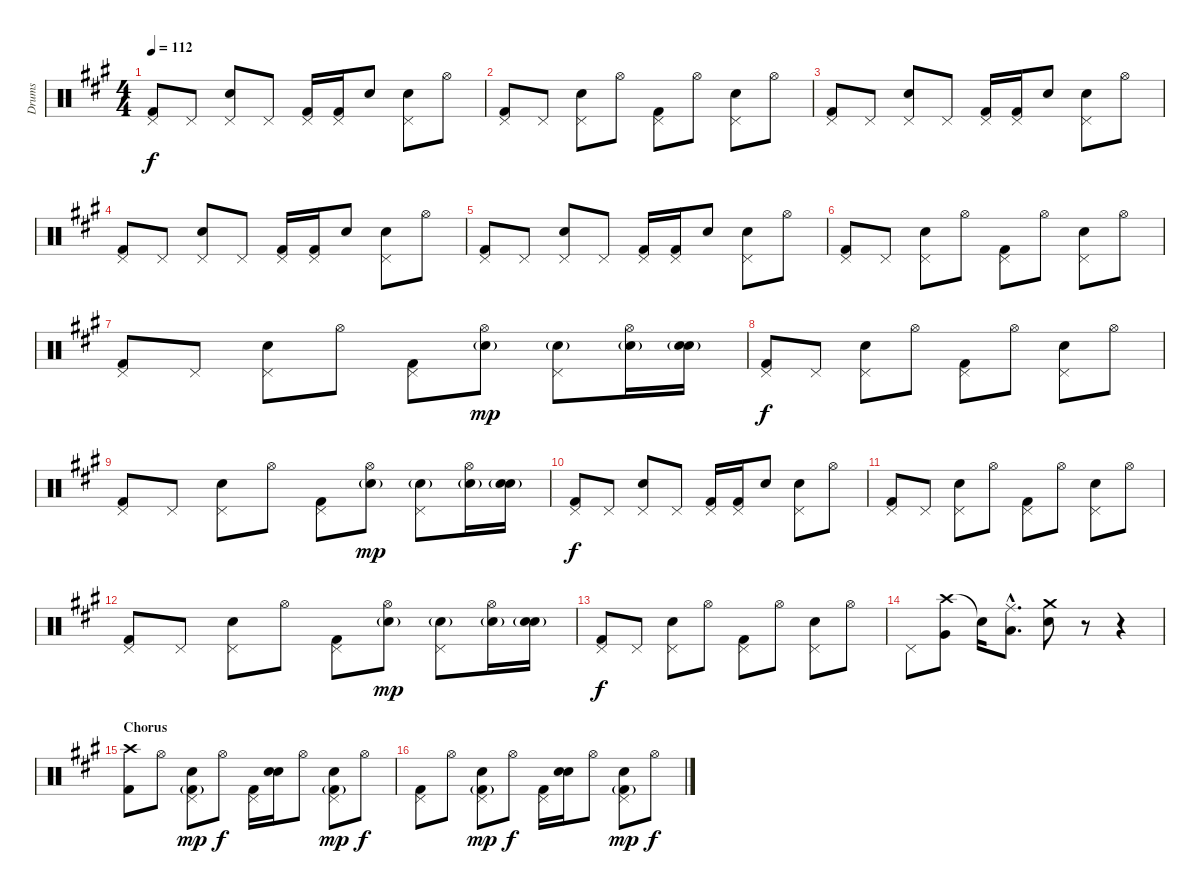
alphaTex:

\track ("Drums" "Drums") {instrument percussion}
\staff {score}
\articulation defaults
\ts (4 4)
\tempo 112
\clef neutral
\ks a
("Pedal Hi-Hat (hit)" "Kick (hit) 2").8{dy f} "Pedal Hi-Hat (hit)".8 ("Pedal Hi-Hat (hit)" "Electric Snare (hit)").8 "Pedal Hi-Hat (hit)".8 ("Pedal Hi-Hat (hit)" "Kick (hit) 2").16 ("Pedal Hi-Hat (hit)" "Kick (hit) 2").16 "Snare (hit)"{x}.8 ("Pedal Hi-Hat (hit)" "Electric Snare (hit)").8 "Hi-Hat (open)".8 |
("Pedal Hi-Hat (hit)" "Kick (hit) 2").8 "Pedal Hi-Hat (hit)".8 ("Pedal Hi-Hat (hit)" "Electric Snare (hit)").8 "Hi-Hat (open)".8 ("Pedal Hi-Hat (hit)" "Kick (hit) 2").8 "Hi-Hat (open)".8 ("Pedal Hi-Hat (hit)" "Electric Snare (hit)").8 "Hi-Hat (open)".8 |
("Pedal Hi-Hat (hit)" "Kick (hit) 2").8 "Pedal Hi-Hat (hit)".8 ("Pedal Hi-Hat (hit)" "Electric Snare (hit)").8 "Pedal Hi-Hat (hit)".8 ("Pedal Hi-Hat (hit)" "Kick (hit) 2").16 ("Pedal Hi-Hat (hit)" "Kick (hit) 2").16 "Snare (hit)"{x}.8 ("Pedal Hi-Hat (hit)" "Electric Snare (hit)").8 "Hi-Hat (open)".8 |
("Pedal Hi-Hat (hit)" "Kick (hit) 2").8 "Pedal Hi-Hat (hit)".8 ("Pedal Hi-Hat (hit)" "Electric Snare (hit)").8 "Pedal Hi-Hat (hit)".8 ("Pedal Hi-Hat (hit)" "Kick (hit) 2").16 ("Pedal Hi-Hat (hit)" "Kick (hit) 2").16 "Snare (hit)"{x}.8 ("Pedal Hi-Hat (hit)" "Electric Snare (hit)").8 "Hi-Hat (open)".8 |
("Pedal Hi-Hat (hit)" "Kick (hit) 2").8 "Pedal Hi-Hat (hit)".8 ("Pedal Hi-Hat (hit)" "Electric Snare (hit)").8 "Pedal Hi-Hat (hit)".8 ("Pedal Hi-Hat (hit)" "Kick (hit) 2").16 ("Pedal Hi-Hat (hit)" "Kick (hit) 2").16 "Snare (hit)"{x}.8 ("Pedal Hi-Hat (hit)" "Electric Snare (hit)").8 "Hi-Hat (open)".8 |
("Pedal Hi-Hat (hit)" "Kick (hit) 2").8 "Pedal Hi-Hat (hit)".8 ("Pedal Hi-Hat (hit)" "Electric Snare (hit)").8 "Hi-Hat (open)".8 ("Pedal Hi-Hat (hit)" "Kick (hit) 2").8 "Hi-Hat (open)".8 ("Pedal Hi-Hat (hit)" "Electric Snare (hit)").8 "Hi-Hat (open)".8 |
("Pedal Hi-Hat (hit)" "Kick (hit) 2").8 "Pedal Hi-Hat (hit)".8 ("Pedal Hi-Hat (hit)" "Electric Snare (hit)").8 "Hi-Hat (open)".8 ("Pedal Hi-Hat (hit)" "Kick (hit) 2").8 ("Hi-Hat (open)" "Electric Snare (hit)"{g}).8{dy mp} ("Pedal Hi-Hat (hit)" "Electric Snare (hit)"{g}).8 ("Hi-Hat (open)" "Electric Snare (hit)"{g}).16 ("Snare (hit)"{x} "Electric Snare (hit)"{g}).16 |
("Pedal Hi-Hat (hit)" "Kick (hit) 2").8{dy f} "Pedal Hi-Hat (hit)".8 ("Pedal Hi-Hat (hit)" "Electric Snare (hit)").8 "Hi-Hat (open)".8 ("Pedal Hi-Hat (hit)" "Kick (hit) 2").8 "Hi-Hat (open)".8 ("Pedal Hi-Hat (hit)" "Electric Snare (hit)").8 "Hi-Hat (open)".8 |
("Pedal Hi-Hat (hit)" "Kick (hit) 2").8 "Pedal Hi-Hat (hit)".8 ("Pedal Hi-Hat (hit)" "Electric Snare (hit)").8 "Hi-Hat (open)".8 ("Pedal Hi-Hat (hit)" "Kick (hit) 2").8 ("Hi-Hat (open)" "Electric Snare (hit)"{g}).8{dy mp} ("Pedal Hi-Hat (hit)" "Electric Snare (hit)"{g}).8 ("Hi-Hat (open)" "Electric Snare (hit)"{g}).16 ("Snare (hit)"{x} "Electric Snare (hit)"{g}).16 |
("Pedal Hi-Hat (hit)" "Kick (hit) 2").8{dy f} "Pedal Hi-Hat (hit)".8 ("Pedal Hi-Hat (hit)" "Electric Snare (hit)").8 "Pedal Hi-Hat (hit)".8 ("Pedal Hi-Hat (hit)" "Kick (hit) 2").16 ("Pedal Hi-Hat (hit)" "Kick (hit) 2").16 "Snare (hit)"{x}.8 ("Pedal Hi-Hat (hit)" "Electric Snare (hit)").8 "Hi-Hat (open)".8 |
("Pedal Hi-Hat (hit)" "Kick (hit) 2").8 "Pedal Hi-Hat (hit)".8 ("Pedal Hi-Hat (hit)" "Electric Snare (hit)").8 "Hi-Hat (open)".8 ("Pedal Hi-Hat (hit)" "Kick (hit) 2").8 "Hi-Hat (open)".8 ("Pedal Hi-Hat (hit)" "Electric Snare (hit)").8 "Hi-Hat (open)".8 |
("Pedal Hi-Hat (hit)" "Kick (hit) 2").8 "Pedal Hi-Hat (hit)".8 ("Pedal Hi-Hat (hit)" "Electric Snare (hit)").8 "Hi-Hat (open)".8 ("Pedal Hi-Hat (hit)" "Kick (hit) 2").8 ("Hi-Hat (open)" "Electric Snare (hit)"{g}).8{dy mp} ("Pedal Hi-Hat (hit)" "Electric Snare (hit)"{g}).8 ("Hi-Hat (open)" "Electric Snare (hit)"{g}).16 ("Snare (hit)"{x} "Electric Snare (hit)"{g}).16 |
("Pedal Hi-Hat (hit)" "Kick (hit) 2").8{dy f} "Pedal Hi-Hat (hit)".8 ("Pedal Hi-Hat (hit)" "Electric Snare (hit)").8 "Hi-Hat (open)".8 ("Pedal Hi-Hat (hit)" "Kick (hit) 2").8 "Hi-Hat (open)".8 ("Pedal Hi-Hat (hit)" "Electric Snare (hit)").8 "Hi-Hat (open)".8 |
"Pedal Hi-Hat (hit)".8 ("Crash high (hit)" "Very Low Tom (hit)").8 "Snare (hit)"{t}.16 ("Ride (middle)"{hac} "Low Floor Tom (hit)"{hac}).8{d} ("Crash medium (hit)" "Electric Snare (hit)").8 r.8 r.4 |
\section ("" "Chorus")
("Crash high (hit)" "Kick (hit) 2").8 "Hi-Hat (open)".8 ("Pedal Hi-Hat (hit)" "Electric Snare (hit)" "Kick (hit) 2"{g}).8{dy mp} "Hi-Hat (open)".8{dy f} ("Pedal Hi-Hat (hit)" "Kick (hit) 2").16 ("Snare (hit)"{x} "Electric Snare (hit)").16 "Hi-Hat (open)".8 ("Pedal Hi-Hat (hit)" "Electric Snare (hit)" "Kick (hit) 2"{g}).8{dy mp} "Hi-Hat (open)".8{dy f} |
("Pedal Hi-Hat (hit)" "Kick (hit) 2").8 "Hi-Hat (open)".8 ("Pedal Hi-Hat (hit)" "Electric Snare (hit)" "Kick (hit) 2"{g}).8{dy mp} "Hi-Hat (open)".8{dy f} ("Pedal Hi-Hat (hit)" "Kick (hit) 2").16 ("Snare (hit)"{x} "Electric Snare (hit)").16 "Hi-Hat (open)".8 ("Pedal Hi-Hat (hit)" "Electric Snare (hit)" "Kick (hit) 2"{g}).8{dy mp} "Hi-Hat (open)".8{dy f}
